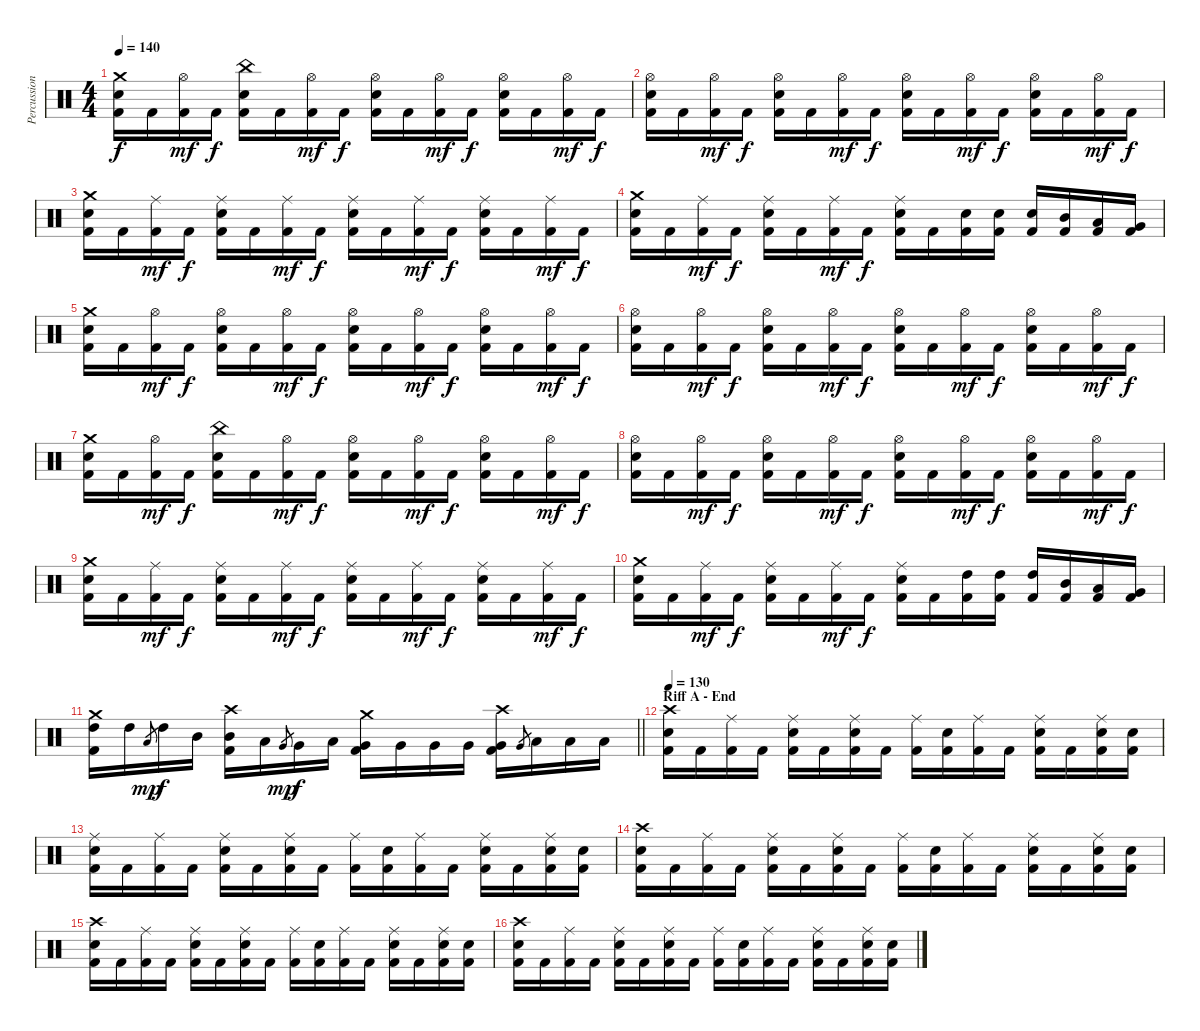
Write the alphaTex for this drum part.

\track ("Percussion" "Percussion") {instrument percussion}
\staff {score}
\articulation defaults
\ts (4 4)
\tempo 140
\clef neutral
\ks c
("Crash medium (hit)" "Snare (hit) 2" "Kick (hit) 2").16{dy f} "Kick (hit) 2".16 ("Hi-Hat (open)" "Kick (hit) 2").16{dy mf} "Kick (hit) 2".16{dy f} ("China (hit)" "Snare (hit) 2" "Kick (hit) 2").16 "Kick (hit) 2".16 ("Hi-Hat (open)" "Kick (hit) 2").16{dy mf} "Kick (hit) 2".16{dy f} ("Hi-Hat (open)" "Snare (hit) 2" "Kick (hit) 2").16 "Kick (hit) 2".16 ("Hi-Hat (open)" "Kick (hit) 2").16{dy mf} "Kick (hit) 2".16{dy f} ("Hi-Hat (open)" "Snare (hit) 2" "Kick (hit) 2").16 "Kick (hit) 2".16 ("Hi-Hat (open)" "Kick (hit) 2").16{dy mf} "Kick (hit) 2".16{dy f} |
("Hi-Hat (open)" "Snare (hit) 2" "Kick (hit) 2").16 "Kick (hit) 2".16 ("Hi-Hat (open)" "Kick (hit) 2").16{dy mf} "Kick (hit) 2".16{dy f} ("Hi-Hat (open)" "Snare (hit) 2" "Kick (hit) 2").16 "Kick (hit) 2".16 ("Hi-Hat (open)" "Kick (hit) 2").16{dy mf} "Kick (hit) 2".16{dy f} ("Hi-Hat (open)" "Snare (hit) 2" "Kick (hit) 2").16 "Kick (hit) 2".16 ("Hi-Hat (open)" "Kick (hit) 2").16{dy mf} "Kick (hit) 2".16{dy f} ("Hi-Hat (open)" "Snare (hit) 2" "Kick (hit) 2").16 "Kick (hit) 2".16 ("Hi-Hat (open)" "Kick (hit) 2").16{dy mf} "Kick (hit) 2".16{dy f} |
("Crash medium (hit)" "Snare (hit) 2" "Kick (hit) 2").16 "Kick (hit) 2".16 ("Ride (middle)" "Kick (hit) 2").16{dy mf} "Kick (hit) 2".16{dy f} ("Ride (middle)" "Snare (hit) 2" "Kick (hit) 2").16 "Kick (hit) 2".16 ("Ride (middle)" "Kick (hit) 2").16{dy mf} "Kick (hit) 2".16{dy f} ("Ride (middle)" "Snare (hit) 2" "Kick (hit) 2").16 "Kick (hit) 2".16 ("Ride (middle)" "Kick (hit) 2").16{dy mf} "Kick (hit) 2".16{dy f} ("Ride (middle)" "Snare (hit) 2" "Kick (hit) 2").16 "Kick (hit) 2".16 ("Ride (middle)" "Kick (hit) 2").16{dy mf} "Kick (hit) 2".16{dy f} |
("Crash medium (hit)" "Snare (hit) 2" "Kick (hit) 2").16 "Kick (hit) 2".16 ("Ride (middle)" "Kick (hit) 2").16{dy mf} "Kick (hit) 2".16{dy f} ("Ride (middle)" "Snare (hit) 2" "Kick (hit) 2").16 "Kick (hit) 2".16 ("Ride (middle)" "Kick (hit) 2").16{dy mf} "Kick (hit) 2".16{dy f} ("Ride (middle)" "Snare (hit) 2" "Kick (hit) 2").16 "Kick (hit) 2".16 ("Snare (hit) 2" "Kick (hit) 2").16 ("Snare (hit) 2" "Kick (hit) 2").16 ("Snare (hit) 2" "Kick (hit) 2").16 ("Mid Tom (hit)" "Kick (hit) 2").16 ("Low Tom (hit)" "Kick (hit) 2").16 ("Very Low Tom (hit)" "Kick (hit) 2").16 |
("Crash medium (hit)" "Snare (hit) 2" "Kick (hit) 2").16 "Kick (hit) 2".16 ("Hi-Hat (open)" "Kick (hit) 2").16{dy mf} "Kick (hit) 2".16{dy f} ("Hi-Hat (open)" "Snare (hit) 2" "Kick (hit) 2").16 "Kick (hit) 2".16 ("Hi-Hat (open)" "Kick (hit) 2").16{dy mf} "Kick (hit) 2".16{dy f} ("Hi-Hat (open)" "Snare (hit) 2" "Kick (hit) 2").16 "Kick (hit) 2".16 ("Hi-Hat (open)" "Kick (hit) 2").16{dy mf} "Kick (hit) 2".16{dy f} ("Hi-Hat (open)" "Snare (hit) 2" "Kick (hit) 2").16 "Kick (hit) 2".16 ("Hi-Hat (open)" "Kick (hit) 2").16{dy mf} "Kick (hit) 2".16{dy f} |
("Hi-Hat (open)" "Snare (hit) 2" "Kick (hit) 2").16 "Kick (hit) 2".16 ("Hi-Hat (open)" "Kick (hit) 2").16{dy mf} "Kick (hit) 2".16{dy f} ("Hi-Hat (open)" "Snare (hit) 2" "Kick (hit) 2").16 "Kick (hit) 2".16 ("Hi-Hat (open)" "Kick (hit) 2").16{dy mf} "Kick (hit) 2".16{dy f} ("Hi-Hat (open)" "Snare (hit) 2" "Kick (hit) 2").16 "Kick (hit) 2".16 ("Hi-Hat (open)" "Kick (hit) 2").16{dy mf} "Kick (hit) 2".16{dy f} ("Hi-Hat (open)" "Snare (hit) 2" "Kick (hit) 2").16 "Kick (hit) 2".16 ("Hi-Hat (open)" "Kick (hit) 2").16{dy mf} "Kick (hit) 2".16{dy f} |
("Crash medium (hit)" "Snare (hit) 2" "Kick (hit) 2").16 "Kick (hit) 2".16 ("Hi-Hat (open)" "Kick (hit) 2").16{dy mf} "Kick (hit) 2".16{dy f} ("China (hit)" "Snare (hit) 2" "Kick (hit) 2").16 "Kick (hit) 2".16 ("Hi-Hat (open)" "Kick (hit) 2").16{dy mf} "Kick (hit) 2".16{dy f} ("Hi-Hat (open)" "Snare (hit) 2" "Kick (hit) 2").16 "Kick (hit) 2".16 ("Hi-Hat (open)" "Kick (hit) 2").16{dy mf} "Kick (hit) 2".16{dy f} ("Hi-Hat (open)" "Snare (hit) 2" "Kick (hit) 2").16 "Kick (hit) 2".16 ("Hi-Hat (open)" "Kick (hit) 2").16{dy mf} "Kick (hit) 2".16{dy f} |
("Hi-Hat (open)" "Snare (hit) 2" "Kick (hit) 2").16 "Kick (hit) 2".16 ("Hi-Hat (open)" "Kick (hit) 2").16{dy mf} "Kick (hit) 2".16{dy f} ("Hi-Hat (open)" "Snare (hit) 2" "Kick (hit) 2").16 "Kick (hit) 2".16 ("Hi-Hat (open)" "Kick (hit) 2").16{dy mf} "Kick (hit) 2".16{dy f} ("Hi-Hat (open)" "Snare (hit) 2" "Kick (hit) 2").16 "Kick (hit) 2".16 ("Hi-Hat (open)" "Kick (hit) 2").16{dy mf} "Kick (hit) 2".16{dy f} ("Hi-Hat (open)" "Snare (hit) 2" "Kick (hit) 2").16 "Kick (hit) 2".16 ("Hi-Hat (open)" "Kick (hit) 2").16{dy mf} "Kick (hit) 2".16{dy f} |
("Crash medium (hit)" "Snare (hit) 2" "Kick (hit) 2").16 "Kick (hit) 2".16 ("Ride (middle)" "Kick (hit) 2").16{dy mf} "Kick (hit) 2".16{dy f} ("Ride (middle)" "Snare (hit) 2" "Kick (hit) 2").16 "Kick (hit) 2".16 ("Ride (middle)" "Kick (hit) 2").16{dy mf} "Kick (hit) 2".16{dy f} ("Ride (middle)" "Snare (hit) 2" "Kick (hit) 2").16 "Kick (hit) 2".16 ("Ride (middle)" "Kick (hit) 2").16{dy mf} "Kick (hit) 2".16{dy f} ("Ride (middle)" "Snare (hit) 2" "Kick (hit) 2").16 "Kick (hit) 2".16 ("Ride (middle)" "Kick (hit) 2").16{dy mf} "Kick (hit) 2".16{dy f} |
("Crash medium (hit)" "Snare (hit) 2" "Kick (hit) 2").16 "Kick (hit) 2".16 ("Ride (middle)" "Kick (hit) 2").16{dy mf} "Kick (hit) 2".16{dy f} ("Ride (middle)" "Snare (hit) 2" "Kick (hit) 2").16 "Kick (hit) 2".16 ("Ride (middle)" "Kick (hit) 2").16{dy mf} "Kick (hit) 2".16{dy f} ("Ride (middle)" "Snare (hit) 2" "Kick (hit) 2").16 "Kick (hit) 2".16 ("High Tom (hit)" "Kick (hit) 2").16 ("High Tom (hit)" "Kick (hit) 2").16 ("High Tom (hit)" "Kick (hit) 2").16 ("Mid Tom (hit)" "Kick (hit) 2").16 ("Low Tom (hit)" "Kick (hit) 2").16 ("Very Low Tom (hit)" "Kick (hit) 2").16 |
\barLineRight lightlight
("Crash medium (hit)" "High Tom (hit)" "Kick (hit) 2").16 "High Tom (hit)".16 "Low Tom (hit)".8{gr dy mp} "High Tom (hit)".16{dy f} "Mid Tom (hit)".16 ("Crash high (hit)" "Mid Tom (hit)" "Kick (hit) 2").16 "Low Tom (hit)".16 "Very Low Tom (hit)".8{gr dy mp} "Very Low Tom (hit)".16{dy f} "Low Tom (hit)".16 ("Crash medium (hit)" "Very Low Tom (hit)" "Kick (hit) 2").16 "Very Low Tom (hit)".16 "Very Low Tom (hit)".16 "Very Low Tom (hit)".16 ("Crash high (hit)" "Very Low Tom (hit)" "Kick (hit) 2").16 "Very Low Tom (hit)".8{gr} "Low Floor Tom (hit)".16 "Low Floor Tom (hit)".16 "Low Floor Tom (hit)".16 |
\section ("" "Riff A - End")
\tempo 125
\tempo 130
("Crash high (hit)" "Snare (hit) 2" "Kick (hit) 2").16 "Kick (hit) 2".16 ("Ride (middle)" "Kick (hit) 2").16 "Kick (hit) 2".16 ("Ride (middle)" "Snare (hit) 2" "Kick (hit) 2").16 "Kick (hit) 2".16 ("Ride (middle)" "Snare (hit) 2" "Kick (hit) 2").16 "Kick (hit) 2".16 ("Ride (middle)" "Kick (hit) 2").16 ("Snare (hit) 2" "Kick (hit) 2").16 ("Ride (middle)" "Kick (hit) 2").16 "Kick (hit) 2".16 ("Ride (middle)" "Snare (hit) 2" "Kick (hit) 2").16 "Kick (hit) 2".16 ("Ride (middle)" "Snare (hit) 2" "Kick (hit) 2").16 ("Snare (hit) 2" "Kick (hit) 2").16 |
("Ride (middle)" "Snare (hit) 2" "Kick (hit) 2").16 "Kick (hit) 2".16 ("Ride (middle)" "Kick (hit) 2").16 "Kick (hit) 2".16 ("Ride (middle)" "Snare (hit) 2" "Kick (hit) 2").16 "Kick (hit) 2".16 ("Ride (middle)" "Snare (hit) 2" "Kick (hit) 2").16 "Kick (hit) 2".16 ("Ride (middle)" "Kick (hit) 2").16 ("Snare (hit) 2" "Kick (hit) 2").16 ("Ride (middle)" "Kick (hit) 2").16 "Kick (hit) 2".16 ("Ride (middle)" "Snare (hit) 2" "Kick (hit) 2").16 "Kick (hit) 2".16 ("Ride (middle)" "Snare (hit) 2" "Kick (hit) 2").16 ("Snare (hit) 2" "Kick (hit) 2").16 |
("Crash high (hit)" "Snare (hit) 2" "Kick (hit) 2").16 "Kick (hit) 2".16 ("Ride (middle)" "Kick (hit) 2").16 "Kick (hit) 2".16 ("Ride (middle)" "Snare (hit) 2" "Kick (hit) 2").16 "Kick (hit) 2".16 ("Ride (middle)" "Snare (hit) 2" "Kick (hit) 2").16 "Kick (hit) 2".16 ("Ride (middle)" "Kick (hit) 2").16 ("Snare (hit) 2" "Kick (hit) 2").16 ("Ride (middle)" "Kick (hit) 2").16 "Kick (hit) 2".16 ("Ride (middle)" "Snare (hit) 2" "Kick (hit) 2").16 "Kick (hit) 2".16 ("Ride (middle)" "Snare (hit) 2" "Kick (hit) 2").16 ("Snare (hit) 2" "Kick (hit) 2").16 |
("Crash high (hit)" "Snare (hit) 2" "Kick (hit) 2").16 "Kick (hit) 2".16 ("Ride (middle)" "Kick (hit) 2").16 "Kick (hit) 2".16 ("Ride (middle)" "Snare (hit) 2" "Kick (hit) 2").16 "Kick (hit) 2".16 ("Ride (middle)" "Snare (hit) 2" "Kick (hit) 2").16 "Kick (hit) 2".16 ("Ride (middle)" "Kick (hit) 2").16 ("Snare (hit) 2" "Kick (hit) 2").16 ("Ride (middle)" "Kick (hit) 2").16 "Kick (hit) 2".16 ("Ride (middle)" "Snare (hit) 2" "Kick (hit) 2").16 "Kick (hit) 2".16 ("Ride (middle)" "Snare (hit) 2" "Kick (hit) 2").16 ("Snare (hit) 2" "Kick (hit) 2").16 |
("Crash high (hit)" "Snare (hit) 2" "Kick (hit) 2").16 "Kick (hit) 2".16 ("Ride (middle)" "Kick (hit) 2").16 "Kick (hit) 2".16 ("Ride (middle)" "Snare (hit) 2" "Kick (hit) 2").16 "Kick (hit) 2".16 ("Ride (middle)" "Snare (hit) 2" "Kick (hit) 2").16 "Kick (hit) 2".16 ("Ride (middle)" "Kick (hit) 2").16 ("Snare (hit) 2" "Kick (hit) 2").16 ("Ride (middle)" "Kick (hit) 2").16 "Kick (hit) 2".16 ("Ride (middle)" "Snare (hit) 2" "Kick (hit) 2").16 "Kick (hit) 2".16 ("Ride (middle)" "Snare (hit) 2" "Kick (hit) 2").16 ("Snare (hit) 2" "Kick (hit) 2").16
